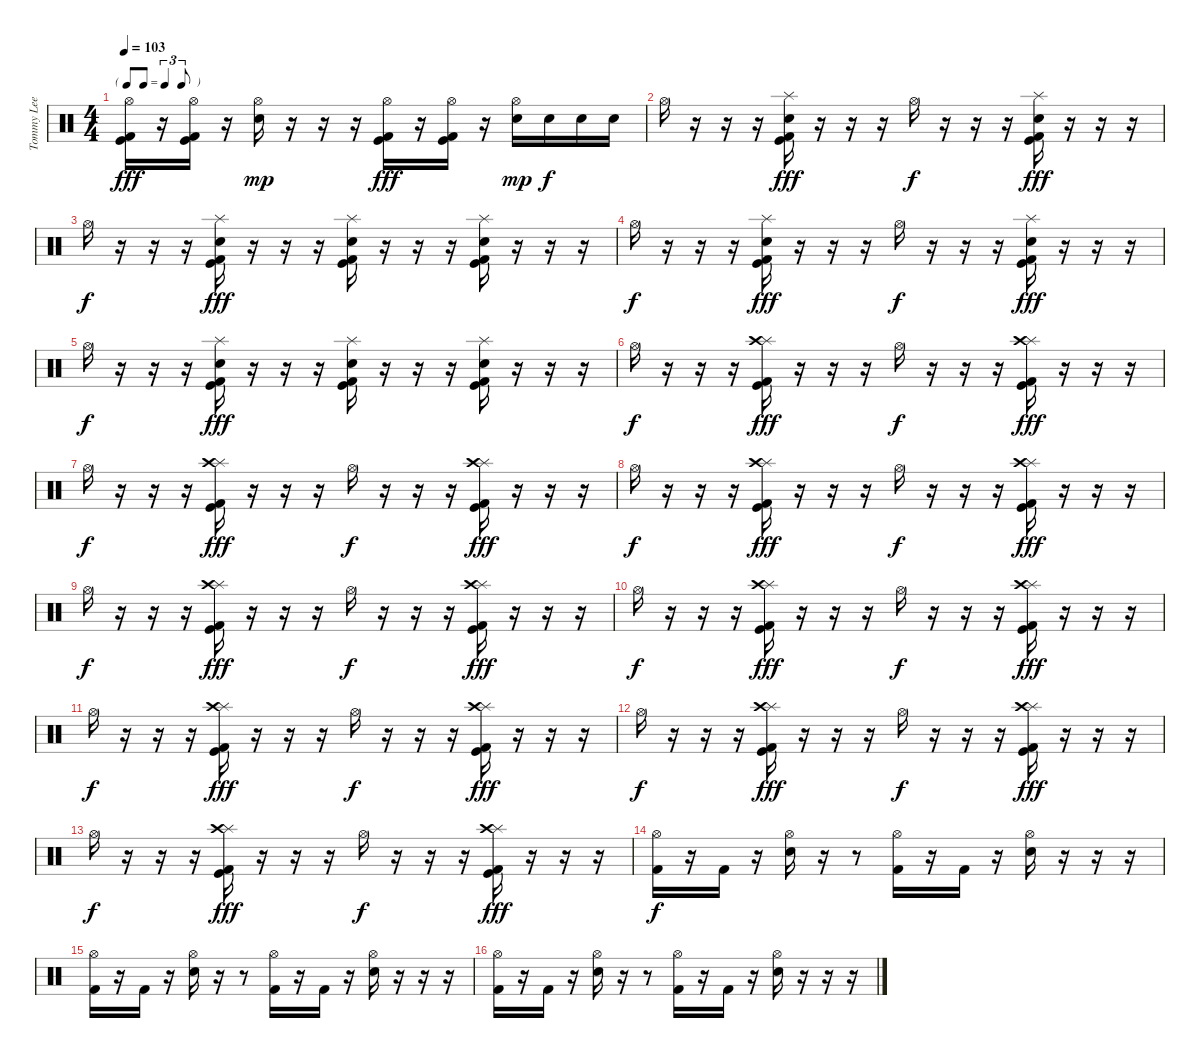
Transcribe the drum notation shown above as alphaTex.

\track ("Tommy Lee" "Tommy Lee") {instrument percussion}
\staff {score}
\articulation defaults
\ts (4 4)
\tf triplet8th
\tempo 103
\clef neutral
\ks c
("Hi-Hat (open)" "Kick (hit) 2" "Kick (hit)").16{dy fff} r.16 ("Hi-Hat (open)" "Kick (hit) 2" "Kick (hit)").16 r.16 ("Hi-Hat (open)" "Snare (hit) 2").16{dy mp} r.16 r.16 r.16 ("Hi-Hat (open)" "Kick (hit) 2" "Kick (hit)").16{dy fff} r.16 ("Hi-Hat (open)" "Kick (hit) 2" "Kick (hit)").16 r.16 ("Hi-Hat (open)" "Snare (hit) 2").16{dy mp} "Snare (hit) 2".16{dy f} "Snare (hit) 2".16 "Snare (hit) 2".16 |
"Hi-Hat (open)".16 r.16 r.16 r.16 ("Splash (hit)" "Snare (hit) 2" "Kick (hit) 2" "Kick (hit)").16{dy fff} r.16 r.16 r.16 "Hi-Hat (open)".16{dy f} r.16 r.16 r.16 ("Splash (hit)" "Snare (hit) 2" "Kick (hit)" "Kick (hit) 2").16{dy fff} r.16 r.16 r.16 |
"Hi-Hat (open)".16{dy f} r.16 r.16 r.16 ("Splash (hit)" "Snare (hit) 2" "Kick (hit)" "Kick (hit) 2").16{dy fff} r.16 r.16 r.16 ("Splash (hit)" "Snare (hit) 2" "Kick (hit)" "Kick (hit) 2").16 r.16 r.16 r.16 ("Splash (hit)" "Snare (hit) 2" "Kick (hit)" "Kick (hit) 2").16 r.16 r.16 r.16 |
"Hi-Hat (open)".16{dy f} r.16 r.16 r.16 ("Splash (hit)" "Snare (hit) 2" "Kick (hit) 2" "Kick (hit)").16{dy fff} r.16 r.16 r.16 "Hi-Hat (open)".16{dy f} r.16 r.16 r.16 ("Splash (hit)" "Snare (hit) 2" "Kick (hit)" "Kick (hit) 2").16{dy fff} r.16 r.16 r.16 |
"Hi-Hat (open)".16{dy f} r.16 r.16 r.16 ("Splash (hit)" "Snare (hit) 2" "Kick (hit)" "Kick (hit) 2").16{dy fff} r.16 r.16 r.16 ("Splash (hit)" "Snare (hit) 2" "Kick (hit)" "Kick (hit) 2").16 r.16 r.16 r.16 ("Splash (hit)" "Snare (hit) 2" "Kick (hit)" "Kick (hit) 2").16 r.16 r.16 r.16 |
"Hi-Hat (open)".16{dy f} r.16 r.16 r.16 ("Splash (hit)" "Crash high (hit)" "Kick (hit) 2" "Kick (hit)").16{dy fff} r.16 r.16 r.16 "Hi-Hat (open)".16{dy f} r.16 r.16 r.16 ("Splash (hit)" "Crash high (hit)" "Kick (hit)" "Kick (hit) 2").16{dy fff} r.16 r.16 r.16 |
"Hi-Hat (open)".16{dy f} r.16 r.16 r.16 ("Splash (hit)" "Crash high (hit)" "Kick (hit) 2" "Kick (hit)").16{dy fff} r.16 r.16 r.16 "Hi-Hat (open)".16{dy f} r.16 r.16 r.16 ("Splash (hit)" "Crash high (hit)" "Kick (hit)" "Kick (hit) 2").16{dy fff} r.16 r.16 r.16 |
"Hi-Hat (open)".16{dy f} r.16 r.16 r.16 ("Splash (hit)" "Crash high (hit)" "Kick (hit) 2" "Kick (hit)").16{dy fff} r.16 r.16 r.16 "Hi-Hat (open)".16{dy f} r.16 r.16 r.16 ("Splash (hit)" "Crash high (hit)" "Kick (hit)" "Kick (hit) 2").16{dy fff} r.16 r.16 r.16 |
"Hi-Hat (open)".16{dy f} r.16 r.16 r.16 ("Splash (hit)" "Crash high (hit)" "Kick (hit) 2" "Kick (hit)").16{dy fff} r.16 r.16 r.16 "Hi-Hat (open)".16{dy f} r.16 r.16 r.16 ("Splash (hit)" "Crash high (hit)" "Kick (hit)" "Kick (hit) 2").16{dy fff} r.16 r.16 r.16 |
"Hi-Hat (open)".16{dy f} r.16 r.16 r.16 ("Splash (hit)" "Crash high (hit)" "Kick (hit) 2" "Kick (hit)").16{dy fff} r.16 r.16 r.16 "Hi-Hat (open)".16{dy f} r.16 r.16 r.16 ("Splash (hit)" "Crash high (hit)" "Kick (hit)" "Kick (hit) 2").16{dy fff} r.16 r.16 r.16 |
"Hi-Hat (open)".16{dy f} r.16 r.16 r.16 ("Splash (hit)" "Crash high (hit)" "Kick (hit) 2" "Kick (hit)").16{dy fff} r.16 r.16 r.16 "Hi-Hat (open)".16{dy f} r.16 r.16 r.16 ("Splash (hit)" "Crash high (hit)" "Kick (hit)" "Kick (hit) 2").16{dy fff} r.16 r.16 r.16 |
"Hi-Hat (open)".16{dy f} r.16 r.16 r.16 ("Splash (hit)" "Crash high (hit)" "Kick (hit) 2" "Kick (hit)").16{dy fff} r.16 r.16 r.16 "Hi-Hat (open)".16{dy f} r.16 r.16 r.16 ("Splash (hit)" "Crash high (hit)" "Kick (hit)" "Kick (hit) 2").16{dy fff} r.16 r.16 r.16 |
"Hi-Hat (open)".16{dy f} r.16 r.16 r.16 ("Splash (hit)" "Crash high (hit)" "Kick (hit) 2" "Kick (hit)").16{dy fff} r.16 r.16 r.16 "Hi-Hat (open)".16{dy f} r.16 r.16 r.16 ("Splash (hit)" "Crash high (hit)" "Kick (hit)" "Kick (hit) 2").16{dy fff} r.16 r.16 r.16 |
("Hi-Hat (open)" "Kick (hit) 2").16{dy f} r.16 "Kick (hit) 2".16 r.16 ("Hi-Hat (open)" "Snare (hit) 2").16 r.16 r.8 ("Hi-Hat (open)" "Kick (hit) 2").16 r.16 "Kick (hit) 2".16 r.16 ("Hi-Hat (open)" "Snare (hit) 2").16 r.16 r.16 r.16 |
("Hi-Hat (open)" "Kick (hit) 2").16 r.16 "Kick (hit) 2".16 r.16 ("Hi-Hat (open)" "Snare (hit) 2").16 r.16 r.8 ("Hi-Hat (open)" "Kick (hit) 2").16 r.16 "Kick (hit) 2".16 r.16 ("Hi-Hat (open)" "Snare (hit) 2").16 r.16 r.16 r.16 |
("Hi-Hat (open)" "Kick (hit) 2").16 r.16 "Kick (hit) 2".16 r.16 ("Hi-Hat (open)" "Snare (hit) 2").16 r.16 r.8 ("Hi-Hat (open)" "Kick (hit) 2").16 r.16 "Kick (hit) 2".16 r.16 ("Hi-Hat (open)" "Snare (hit) 2").16 r.16 r.16 r.16
